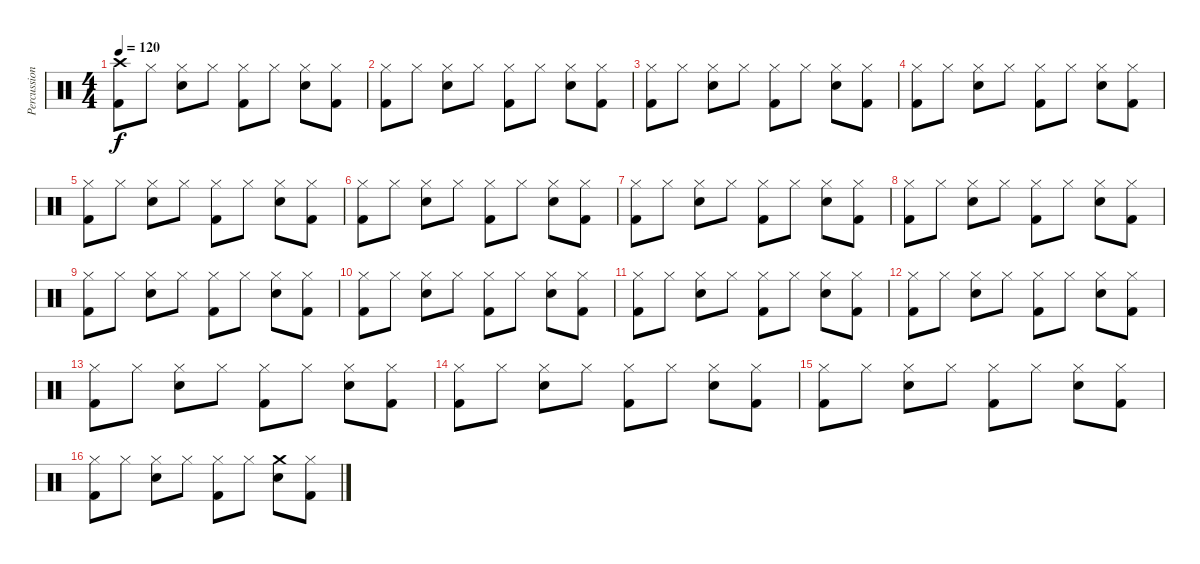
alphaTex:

\track ("Percussions" "Percussion") {instrument percussion}
\staff {score}
\articulation defaults
\ts (4 4)
\tempo 120
\clef neutral
\ks c
("Crash high (hit)" "Kick (hit) 2").8{dy f} "Hi-Hat (closed)".8 ("Hi-Hat (closed)" "Electric Snare (hit)").8 "Hi-Hat (closed)".8 ("Hi-Hat (closed)" "Kick (hit) 2").8 "Hi-Hat (closed)".8 ("Hi-Hat (closed)" "Electric Snare (hit)").8 ("Hi-Hat (closed)" "Kick (hit) 2").8 |
("Hi-Hat (closed)" "Kick (hit) 2").8 "Hi-Hat (closed)".8 ("Hi-Hat (closed)" "Electric Snare (hit)").8 "Hi-Hat (closed)".8 ("Hi-Hat (closed)" "Kick (hit) 2").8 "Hi-Hat (closed)".8 ("Hi-Hat (closed)" "Electric Snare (hit)").8 ("Hi-Hat (closed)" "Kick (hit) 2").8 |
("Hi-Hat (closed)" "Kick (hit) 2").8 "Hi-Hat (closed)".8 ("Hi-Hat (closed)" "Electric Snare (hit)").8 "Hi-Hat (closed)".8 ("Hi-Hat (closed)" "Kick (hit) 2").8 "Hi-Hat (closed)".8 ("Hi-Hat (closed)" "Electric Snare (hit)").8 ("Hi-Hat (closed)" "Kick (hit) 2").8 |
("Hi-Hat (closed)" "Kick (hit) 2").8 "Hi-Hat (closed)".8 ("Hi-Hat (closed)" "Electric Snare (hit)").8 "Hi-Hat (closed)".8 ("Hi-Hat (closed)" "Kick (hit) 2").8 "Hi-Hat (closed)".8 ("Hi-Hat (closed)" "Electric Snare (hit)").8 ("Hi-Hat (closed)" "Kick (hit) 2").8 |
("Hi-Hat (closed)" "Kick (hit) 2").8 "Hi-Hat (closed)".8 ("Hi-Hat (closed)" "Electric Snare (hit)").8 "Hi-Hat (closed)".8 ("Hi-Hat (closed)" "Kick (hit) 2").8 "Hi-Hat (closed)".8 ("Hi-Hat (closed)" "Electric Snare (hit)").8 ("Hi-Hat (closed)" "Kick (hit) 2").8 |
("Hi-Hat (closed)" "Kick (hit) 2").8 "Hi-Hat (closed)".8 ("Hi-Hat (closed)" "Electric Snare (hit)").8 "Hi-Hat (closed)".8 ("Hi-Hat (closed)" "Kick (hit) 2").8 "Hi-Hat (closed)".8 ("Hi-Hat (closed)" "Electric Snare (hit)").8 ("Hi-Hat (closed)" "Kick (hit) 2").8 |
("Hi-Hat (closed)" "Kick (hit) 2").8 "Hi-Hat (closed)".8 ("Hi-Hat (closed)" "Electric Snare (hit)").8 "Hi-Hat (closed)".8 ("Hi-Hat (closed)" "Kick (hit) 2").8 "Hi-Hat (closed)".8 ("Hi-Hat (closed)" "Electric Snare (hit)").8 ("Hi-Hat (closed)" "Kick (hit) 2").8 |
("Hi-Hat (closed)" "Kick (hit) 2").8 "Hi-Hat (closed)".8 ("Hi-Hat (closed)" "Electric Snare (hit)").8 "Hi-Hat (closed)".8 ("Hi-Hat (closed)" "Kick (hit) 2").8 "Hi-Hat (closed)".8 ("Hi-Hat (closed)" "Electric Snare (hit)").8 ("Hi-Hat (closed)" "Kick (hit) 2").8 |
("Hi-Hat (closed)" "Kick (hit) 2").8 "Hi-Hat (closed)".8 ("Hi-Hat (closed)" "Electric Snare (hit)").8 "Hi-Hat (closed)".8 ("Hi-Hat (closed)" "Kick (hit) 2").8 "Hi-Hat (closed)".8 ("Hi-Hat (closed)" "Electric Snare (hit)").8 ("Hi-Hat (closed)" "Kick (hit) 2").8 |
("Hi-Hat (closed)" "Kick (hit) 2").8 "Hi-Hat (closed)".8 ("Hi-Hat (closed)" "Electric Snare (hit)").8 "Hi-Hat (closed)".8 ("Hi-Hat (closed)" "Kick (hit) 2").8 "Hi-Hat (closed)".8 ("Hi-Hat (closed)" "Electric Snare (hit)").8 ("Hi-Hat (closed)" "Kick (hit) 2").8 |
("Hi-Hat (closed)" "Kick (hit) 2").8 "Hi-Hat (closed)".8 ("Hi-Hat (closed)" "Electric Snare (hit)").8 "Hi-Hat (closed)".8 ("Hi-Hat (closed)" "Kick (hit) 2").8 "Hi-Hat (closed)".8 ("Hi-Hat (closed)" "Electric Snare (hit)").8 ("Hi-Hat (closed)" "Kick (hit) 2").8 |
("Hi-Hat (closed)" "Kick (hit) 2").8 "Hi-Hat (closed)".8 ("Hi-Hat (closed)" "Electric Snare (hit)").8 "Hi-Hat (closed)".8 ("Hi-Hat (closed)" "Kick (hit) 2").8 "Hi-Hat (closed)".8 ("Hi-Hat (closed)" "Electric Snare (hit)").8 ("Hi-Hat (closed)" "Kick (hit) 2").8 |
("Hi-Hat (closed)" "Kick (hit) 2").8 "Hi-Hat (closed)".8 ("Hi-Hat (closed)" "Electric Snare (hit)").8 "Hi-Hat (closed)".8 ("Hi-Hat (closed)" "Kick (hit) 2").8 "Hi-Hat (closed)".8 ("Hi-Hat (closed)" "Electric Snare (hit)").8 ("Hi-Hat (closed)" "Kick (hit) 2").8 |
("Hi-Hat (closed)" "Kick (hit) 2").8 "Hi-Hat (closed)".8 ("Hi-Hat (closed)" "Electric Snare (hit)").8 "Hi-Hat (closed)".8 ("Hi-Hat (closed)" "Kick (hit) 2").8 "Hi-Hat (closed)".8 ("Hi-Hat (closed)" "Electric Snare (hit)").8 ("Hi-Hat (closed)" "Kick (hit) 2").8 |
("Hi-Hat (closed)" "Kick (hit) 2").8 "Hi-Hat (closed)".8 ("Hi-Hat (closed)" "Electric Snare (hit)").8 "Hi-Hat (closed)".8 ("Hi-Hat (closed)" "Kick (hit) 2").8 "Hi-Hat (closed)".8 ("Hi-Hat (closed)" "Electric Snare (hit)").8 ("Hi-Hat (closed)" "Kick (hit) 2").8 |
("Hi-Hat (closed)" "Kick (hit) 2").8 "Hi-Hat (closed)".8 ("Hi-Hat (closed)" "Electric Snare (hit)").8 "Hi-Hat (closed)".8 ("Hi-Hat (closed)" "Kick (hit) 2").8 "Hi-Hat (closed)".8 ("Crash medium (hit)" "Electric Snare (hit)").8 ("Hi-Hat (closed)" "Kick (hit) 2").8
